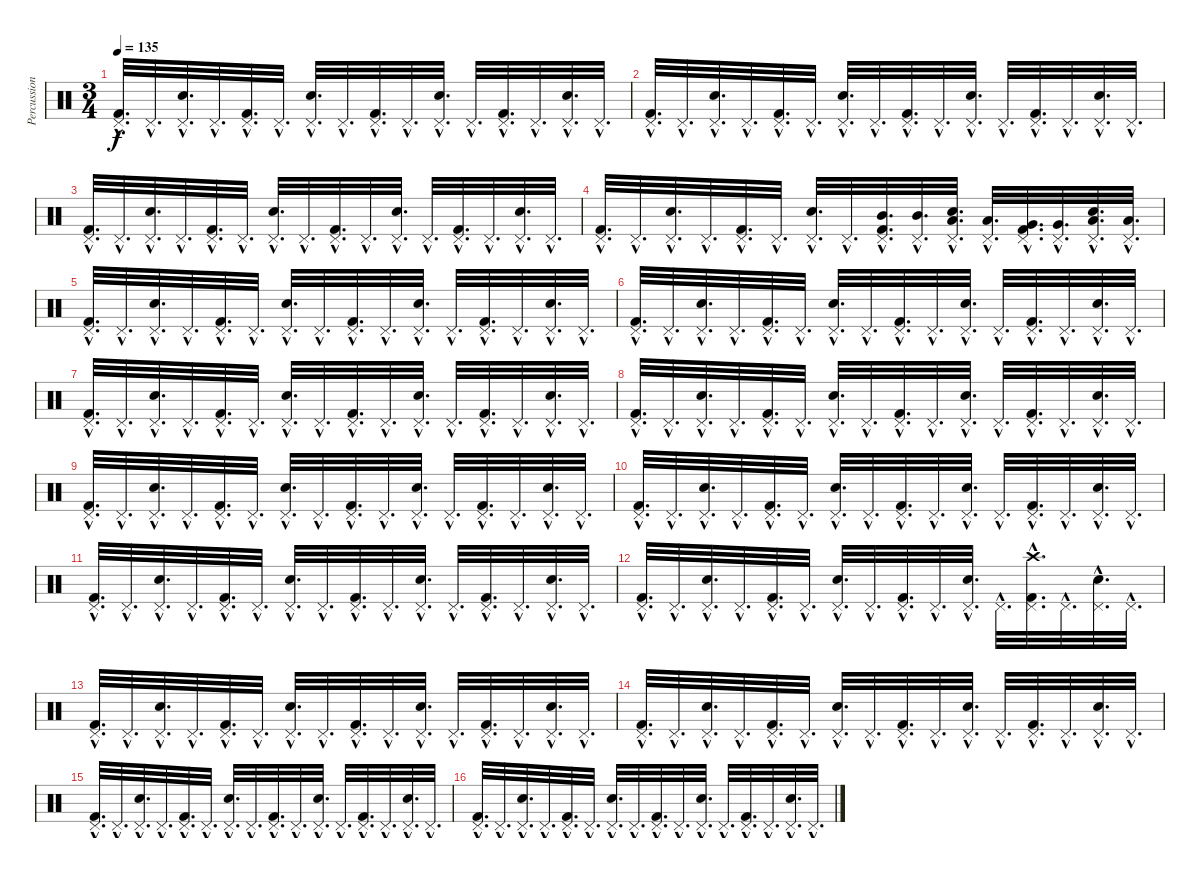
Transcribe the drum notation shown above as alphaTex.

\track ("Percussion" "Percussion") {instrument percussion}
\staff {score}
\articulation defaults
\ts (3 4)
\tempo 135
\clef neutral
\ks c
("Kick (hit) 2"{hac} "Pedal Hi-Hat (hit)"{hac}).32{d dy f} "Pedal Hi-Hat (hit)"{hac}.32{d} ("Pedal Hi-Hat (hit)"{hac} "Electric Snare (hit)"{hac}).32{d} "Pedal Hi-Hat (hit)"{hac}.32{d} ("Kick (hit) 2"{hac} "Pedal Hi-Hat (hit)"{hac}).32{d} "Pedal Hi-Hat (hit)"{hac}.32{d} ("Pedal Hi-Hat (hit)"{hac} "Electric Snare (hit)"{hac}).32{d} "Pedal Hi-Hat (hit)"{hac}.32{d} ("Kick (hit) 2"{hac} "Pedal Hi-Hat (hit)"{hac}).32{d} "Pedal Hi-Hat (hit)"{hac}.32{d} ("Pedal Hi-Hat (hit)"{hac} "Electric Snare (hit)"{hac}).32{d} "Pedal Hi-Hat (hit)"{hac}.32{d} ("Kick (hit) 2"{hac} "Pedal Hi-Hat (hit)"{hac}).32{d} "Pedal Hi-Hat (hit)"{hac}.32{d} ("Pedal Hi-Hat (hit)"{hac} "Electric Snare (hit)"{hac}).32{d} "Pedal Hi-Hat (hit)"{hac}.32{d} |
("Kick (hit) 2"{hac} "Pedal Hi-Hat (hit)"{hac}).32{d} "Pedal Hi-Hat (hit)"{hac}.32{d} ("Pedal Hi-Hat (hit)"{hac} "Electric Snare (hit)"{hac}).32{d} "Pedal Hi-Hat (hit)"{hac}.32{d} ("Kick (hit) 2"{hac} "Pedal Hi-Hat (hit)"{hac}).32{d} "Pedal Hi-Hat (hit)"{hac}.32{d} ("Pedal Hi-Hat (hit)"{hac} "Electric Snare (hit)"{hac}).32{d} "Pedal Hi-Hat (hit)"{hac}.32{d} ("Kick (hit) 2"{hac} "Pedal Hi-Hat (hit)"{hac}).32{d} "Pedal Hi-Hat (hit)"{hac}.32{d} ("Pedal Hi-Hat (hit)"{hac} "Electric Snare (hit)"{hac}).32{d} "Pedal Hi-Hat (hit)"{hac}.32{d} ("Kick (hit) 2"{hac} "Pedal Hi-Hat (hit)"{hac}).32{d} "Pedal Hi-Hat (hit)"{hac}.32{d} ("Pedal Hi-Hat (hit)"{hac} "Electric Snare (hit)"{hac}).32{d} "Pedal Hi-Hat (hit)"{hac}.32{d} |
("Kick (hit) 2"{hac} "Pedal Hi-Hat (hit)"{hac}).32{d} "Pedal Hi-Hat (hit)"{hac}.32{d} ("Pedal Hi-Hat (hit)"{hac} "Electric Snare (hit)"{hac}).32{d} "Pedal Hi-Hat (hit)"{hac}.32{d} ("Kick (hit) 2"{hac} "Pedal Hi-Hat (hit)"{hac}).32{d} "Pedal Hi-Hat (hit)"{hac}.32{d} ("Pedal Hi-Hat (hit)"{hac} "Electric Snare (hit)"{hac}).32{d} "Pedal Hi-Hat (hit)"{hac}.32{d} ("Kick (hit) 2"{hac} "Pedal Hi-Hat (hit)"{hac}).32{d} "Pedal Hi-Hat (hit)"{hac}.32{d} ("Pedal Hi-Hat (hit)"{hac} "Electric Snare (hit)"{hac}).32{d} "Pedal Hi-Hat (hit)"{hac}.32{d} ("Kick (hit) 2"{hac} "Pedal Hi-Hat (hit)"{hac}).32{d} "Pedal Hi-Hat (hit)"{hac}.32{d} ("Pedal Hi-Hat (hit)"{hac} "Electric Snare (hit)"{hac}).32{d} "Pedal Hi-Hat (hit)"{hac}.32{d} |
("Kick (hit) 2"{hac} "Pedal Hi-Hat (hit)"{hac}).32{d} "Pedal Hi-Hat (hit)"{hac}.32{d} ("Pedal Hi-Hat (hit)"{hac} "Electric Snare (hit)"{hac}).32{d} "Pedal Hi-Hat (hit)"{hac}.32{d} ("Kick (hit) 2"{hac} "Pedal Hi-Hat (hit)"{hac}).32{d} "Pedal Hi-Hat (hit)"{hac}.32{d} ("Pedal Hi-Hat (hit)"{hac} "Electric Snare (hit)"{hac}).32{d} "Pedal Hi-Hat (hit)"{hac}.32{d} ("Kick (hit) 2"{hac} "Pedal Hi-Hat (hit)"{hac} "Mid Tom (hit)"{hac}).32{d} ("Pedal Hi-Hat (hit)"{hac} "Mid Tom (hit)"{hac}).32{d} ("Pedal Hi-Hat (hit)"{hac} "Electric Snare (hit)"{hac} "Low Tom (hit)"{hac}).32{d} ("Pedal Hi-Hat (hit)"{hac} "Low Tom (hit)"{hac}).32{d} ("Kick (hit) 2"{hac} "Pedal Hi-Hat (hit)"{hac} "Very Low Tom (hit)"{hac}).32{d} ("Pedal Hi-Hat (hit)"{hac} "Very Low Tom (hit)"{hac}).32{d} ("Pedal Hi-Hat (hit)"{hac} "Electric Snare (hit)"{hac} "Low Floor Tom (hit)"{hac}).32{d} ("Pedal Hi-Hat (hit)"{hac} "Low Floor Tom (hit)"{hac}).32{d} |
("Kick (hit) 2"{hac} "Pedal Hi-Hat (hit)"{hac}).32{d} "Pedal Hi-Hat (hit)"{hac}.32{d} ("Pedal Hi-Hat (hit)"{hac} "Electric Snare (hit)"{hac}).32{d} "Pedal Hi-Hat (hit)"{hac}.32{d} ("Kick (hit) 2"{hac} "Pedal Hi-Hat (hit)"{hac}).32{d} "Pedal Hi-Hat (hit)"{hac}.32{d} ("Pedal Hi-Hat (hit)"{hac} "Electric Snare (hit)"{hac}).32{d} "Pedal Hi-Hat (hit)"{hac}.32{d} ("Kick (hit) 2"{hac} "Pedal Hi-Hat (hit)"{hac}).32{d} "Pedal Hi-Hat (hit)"{hac}.32{d} ("Pedal Hi-Hat (hit)"{hac} "Electric Snare (hit)"{hac}).32{d} "Pedal Hi-Hat (hit)"{hac}.32{d} ("Kick (hit) 2"{hac} "Pedal Hi-Hat (hit)"{hac}).32{d} "Pedal Hi-Hat (hit)"{hac}.32{d} ("Pedal Hi-Hat (hit)"{hac} "Electric Snare (hit)"{hac}).32{d} "Pedal Hi-Hat (hit)"{hac}.32{d} |
("Kick (hit) 2"{hac} "Pedal Hi-Hat (hit)"{hac}).32{d} "Pedal Hi-Hat (hit)"{hac}.32{d} ("Pedal Hi-Hat (hit)"{hac} "Electric Snare (hit)"{hac}).32{d} "Pedal Hi-Hat (hit)"{hac}.32{d} ("Kick (hit) 2"{hac} "Pedal Hi-Hat (hit)"{hac}).32{d} "Pedal Hi-Hat (hit)"{hac}.32{d} ("Pedal Hi-Hat (hit)"{hac} "Electric Snare (hit)"{hac}).32{d} "Pedal Hi-Hat (hit)"{hac}.32{d} ("Kick (hit) 2"{hac} "Pedal Hi-Hat (hit)"{hac}).32{d} "Pedal Hi-Hat (hit)"{hac}.32{d} ("Pedal Hi-Hat (hit)"{hac} "Electric Snare (hit)"{hac}).32{d} "Pedal Hi-Hat (hit)"{hac}.32{d} ("Kick (hit) 2"{hac} "Pedal Hi-Hat (hit)"{hac}).32{d} "Pedal Hi-Hat (hit)"{hac}.32{d} ("Pedal Hi-Hat (hit)"{hac} "Electric Snare (hit)"{hac}).32{d} "Pedal Hi-Hat (hit)"{hac}.32{d} |
("Kick (hit) 2"{hac} "Pedal Hi-Hat (hit)"{hac}).32{d} "Pedal Hi-Hat (hit)"{hac}.32{d} ("Pedal Hi-Hat (hit)"{hac} "Electric Snare (hit)"{hac}).32{d} "Pedal Hi-Hat (hit)"{hac}.32{d} ("Kick (hit) 2"{hac} "Pedal Hi-Hat (hit)"{hac}).32{d} "Pedal Hi-Hat (hit)"{hac}.32{d} ("Pedal Hi-Hat (hit)"{hac} "Electric Snare (hit)"{hac}).32{d} "Pedal Hi-Hat (hit)"{hac}.32{d} ("Kick (hit) 2"{hac} "Pedal Hi-Hat (hit)"{hac}).32{d} "Pedal Hi-Hat (hit)"{hac}.32{d} ("Pedal Hi-Hat (hit)"{hac} "Electric Snare (hit)"{hac}).32{d} "Pedal Hi-Hat (hit)"{hac}.32{d} ("Kick (hit) 2"{hac} "Pedal Hi-Hat (hit)"{hac}).32{d} "Pedal Hi-Hat (hit)"{hac}.32{d} ("Pedal Hi-Hat (hit)"{hac} "Electric Snare (hit)"{hac}).32{d} "Pedal Hi-Hat (hit)"{hac}.32{d} |
("Kick (hit) 2"{hac} "Pedal Hi-Hat (hit)"{hac}).32{d} "Pedal Hi-Hat (hit)"{hac}.32{d} ("Pedal Hi-Hat (hit)"{hac} "Electric Snare (hit)"{hac}).32{d} "Pedal Hi-Hat (hit)"{hac}.32{d} ("Kick (hit) 2"{hac} "Pedal Hi-Hat (hit)"{hac}).32{d} "Pedal Hi-Hat (hit)"{hac}.32{d} ("Pedal Hi-Hat (hit)"{hac} "Electric Snare (hit)"{hac}).32{d} "Pedal Hi-Hat (hit)"{hac}.32{d} ("Kick (hit) 2"{hac} "Pedal Hi-Hat (hit)"{hac}).32{d} "Pedal Hi-Hat (hit)"{hac}.32{d} ("Pedal Hi-Hat (hit)"{hac} "Electric Snare (hit)"{hac}).32{d} "Pedal Hi-Hat (hit)"{hac}.32{d} ("Kick (hit) 2"{hac} "Pedal Hi-Hat (hit)"{hac}).32{d} "Pedal Hi-Hat (hit)"{hac}.32{d} ("Pedal Hi-Hat (hit)"{hac} "Electric Snare (hit)"{hac}).32{d} "Pedal Hi-Hat (hit)"{hac}.32{d} |
("Kick (hit) 2"{hac} "Pedal Hi-Hat (hit)"{hac}).32{d} "Pedal Hi-Hat (hit)"{hac}.32{d} ("Pedal Hi-Hat (hit)"{hac} "Electric Snare (hit)"{hac}).32{d} "Pedal Hi-Hat (hit)"{hac}.32{d} ("Kick (hit) 2"{hac} "Pedal Hi-Hat (hit)"{hac}).32{d} "Pedal Hi-Hat (hit)"{hac}.32{d} ("Pedal Hi-Hat (hit)"{hac} "Electric Snare (hit)"{hac}).32{d} "Pedal Hi-Hat (hit)"{hac}.32{d} ("Kick (hit) 2"{hac} "Pedal Hi-Hat (hit)"{hac}).32{d} "Pedal Hi-Hat (hit)"{hac}.32{d} ("Pedal Hi-Hat (hit)"{hac} "Electric Snare (hit)"{hac}).32{d} "Pedal Hi-Hat (hit)"{hac}.32{d} ("Kick (hit) 2"{hac} "Pedal Hi-Hat (hit)"{hac}).32{d} "Pedal Hi-Hat (hit)"{hac}.32{d} ("Pedal Hi-Hat (hit)"{hac} "Electric Snare (hit)"{hac}).32{d} "Pedal Hi-Hat (hit)"{hac}.32{d} |
("Kick (hit) 2"{hac} "Pedal Hi-Hat (hit)"{hac}).32{d} "Pedal Hi-Hat (hit)"{hac}.32{d} ("Pedal Hi-Hat (hit)"{hac} "Electric Snare (hit)"{hac}).32{d} "Pedal Hi-Hat (hit)"{hac}.32{d} ("Kick (hit) 2"{hac} "Pedal Hi-Hat (hit)"{hac}).32{d} "Pedal Hi-Hat (hit)"{hac}.32{d} ("Pedal Hi-Hat (hit)"{hac} "Electric Snare (hit)"{hac}).32{d} "Pedal Hi-Hat (hit)"{hac}.32{d} ("Kick (hit) 2"{hac} "Pedal Hi-Hat (hit)"{hac}).32{d} "Pedal Hi-Hat (hit)"{hac}.32{d} ("Pedal Hi-Hat (hit)"{hac} "Electric Snare (hit)"{hac}).32{d} "Pedal Hi-Hat (hit)"{hac}.32{d} ("Kick (hit) 2"{hac} "Pedal Hi-Hat (hit)"{hac}).32{d} "Pedal Hi-Hat (hit)"{hac}.32{d} ("Pedal Hi-Hat (hit)"{hac} "Electric Snare (hit)"{hac}).32{d} "Pedal Hi-Hat (hit)"{hac}.32{d} |
("Kick (hit) 2"{hac} "Pedal Hi-Hat (hit)"{hac}).32{d} "Pedal Hi-Hat (hit)"{hac}.32{d} ("Pedal Hi-Hat (hit)"{hac} "Electric Snare (hit)"{hac}).32{d} "Pedal Hi-Hat (hit)"{hac}.32{d} ("Kick (hit) 2"{hac} "Pedal Hi-Hat (hit)"{hac}).32{d} "Pedal Hi-Hat (hit)"{hac}.32{d} ("Pedal Hi-Hat (hit)"{hac} "Electric Snare (hit)"{hac}).32{d} "Pedal Hi-Hat (hit)"{hac}.32{d} ("Kick (hit) 2"{hac} "Pedal Hi-Hat (hit)"{hac}).32{d} "Pedal Hi-Hat (hit)"{hac}.32{d} ("Pedal Hi-Hat (hit)"{hac} "Electric Snare (hit)"{hac}).32{d} "Pedal Hi-Hat (hit)"{hac}.32{d} ("Kick (hit) 2"{hac} "Pedal Hi-Hat (hit)"{hac}).32{d} "Pedal Hi-Hat (hit)"{hac}.32{d} ("Pedal Hi-Hat (hit)"{hac} "Electric Snare (hit)"{hac}).32{d} "Pedal Hi-Hat (hit)"{hac}.32{d} |
("Kick (hit) 2"{hac} "Pedal Hi-Hat (hit)"{hac}).32{d} "Pedal Hi-Hat (hit)"{hac}.32{d} ("Pedal Hi-Hat (hit)"{hac} "Electric Snare (hit)"{hac}).32{d} "Pedal Hi-Hat (hit)"{hac}.32{d} ("Kick (hit) 2"{hac} "Pedal Hi-Hat (hit)"{hac}).32{d} "Pedal Hi-Hat (hit)"{hac}.32{d} ("Pedal Hi-Hat (hit)"{hac} "Electric Snare (hit)"{hac}).32{d} "Pedal Hi-Hat (hit)"{hac}.32{d} ("Kick (hit) 2"{hac} "Pedal Hi-Hat (hit)"{hac}).32{d} "Pedal Hi-Hat (hit)"{hac}.32{d} ("Pedal Hi-Hat (hit)"{hac} "Electric Snare (hit)"{hac}).32{d} "Pedal Hi-Hat (hit)"{hac}.32{d} ("Kick (hit) 2"{hac} "Pedal Hi-Hat (hit)"{hac} "Crash high (hit)"{hac}).32{d} "Pedal Hi-Hat (hit)"{hac}.32{d} ("Pedal Hi-Hat (hit)"{hac} "Electric Snare (hit)"{hac}).32{d} "Pedal Hi-Hat (hit)"{hac}.32{d} |
("Kick (hit) 2"{hac} "Pedal Hi-Hat (hit)"{hac}).32{d} "Pedal Hi-Hat (hit)"{hac}.32{d} ("Pedal Hi-Hat (hit)"{hac} "Electric Snare (hit)"{hac}).32{d} "Pedal Hi-Hat (hit)"{hac}.32{d} ("Kick (hit) 2"{hac} "Pedal Hi-Hat (hit)"{hac}).32{d} "Pedal Hi-Hat (hit)"{hac}.32{d} ("Pedal Hi-Hat (hit)"{hac} "Electric Snare (hit)"{hac}).32{d} "Pedal Hi-Hat (hit)"{hac}.32{d} ("Kick (hit) 2"{hac} "Pedal Hi-Hat (hit)"{hac}).32{d} "Pedal Hi-Hat (hit)"{hac}.32{d} ("Pedal Hi-Hat (hit)"{hac} "Electric Snare (hit)"{hac}).32{d} "Pedal Hi-Hat (hit)"{hac}.32{d} ("Kick (hit) 2"{hac} "Pedal Hi-Hat (hit)"{hac}).32{d} "Pedal Hi-Hat (hit)"{hac}.32{d} ("Pedal Hi-Hat (hit)"{hac} "Electric Snare (hit)"{hac}).32{d} "Pedal Hi-Hat (hit)"{hac}.32{d} |
("Kick (hit) 2"{hac} "Pedal Hi-Hat (hit)"{hac}).32{d} "Pedal Hi-Hat (hit)"{hac}.32{d} ("Pedal Hi-Hat (hit)"{hac} "Electric Snare (hit)"{hac}).32{d} "Pedal Hi-Hat (hit)"{hac}.32{d} ("Kick (hit) 2"{hac} "Pedal Hi-Hat (hit)"{hac}).32{d} "Pedal Hi-Hat (hit)"{hac}.32{d} ("Pedal Hi-Hat (hit)"{hac} "Electric Snare (hit)"{hac}).32{d} "Pedal Hi-Hat (hit)"{hac}.32{d} ("Kick (hit) 2"{hac} "Pedal Hi-Hat (hit)"{hac}).32{d} "Pedal Hi-Hat (hit)"{hac}.32{d} ("Pedal Hi-Hat (hit)"{hac} "Electric Snare (hit)"{hac}).32{d} "Pedal Hi-Hat (hit)"{hac}.32{d} ("Kick (hit) 2"{hac} "Pedal Hi-Hat (hit)"{hac}).32{d} "Pedal Hi-Hat (hit)"{hac}.32{d} ("Pedal Hi-Hat (hit)"{hac} "Electric Snare (hit)"{hac}).32{d} "Pedal Hi-Hat (hit)"{hac}.32{d} |
("Kick (hit) 2"{hac} "Pedal Hi-Hat (hit)"{hac}).32{d} "Pedal Hi-Hat (hit)"{hac}.32{d} ("Pedal Hi-Hat (hit)"{hac} "Electric Snare (hit)"{hac}).32{d} "Pedal Hi-Hat (hit)"{hac}.32{d} ("Kick (hit) 2"{hac} "Pedal Hi-Hat (hit)"{hac}).32{d} "Pedal Hi-Hat (hit)"{hac}.32{d} ("Pedal Hi-Hat (hit)"{hac} "Electric Snare (hit)"{hac}).32{d} "Pedal Hi-Hat (hit)"{hac}.32{d} ("Kick (hit) 2"{hac} "Pedal Hi-Hat (hit)"{hac}).32{d} "Pedal Hi-Hat (hit)"{hac}.32{d} ("Pedal Hi-Hat (hit)"{hac} "Electric Snare (hit)"{hac}).32{d} "Pedal Hi-Hat (hit)"{hac}.32{d} ("Kick (hit) 2"{hac} "Pedal Hi-Hat (hit)"{hac}).32{d} "Pedal Hi-Hat (hit)"{hac}.32{d} ("Pedal Hi-Hat (hit)"{hac} "Electric Snare (hit)"{hac}).32{d} "Pedal Hi-Hat (hit)"{hac}.32{d} |
("Kick (hit) 2"{hac} "Pedal Hi-Hat (hit)"{hac}).32{d} "Pedal Hi-Hat (hit)"{hac}.32{d} ("Pedal Hi-Hat (hit)"{hac} "Electric Snare (hit)"{hac}).32{d} "Pedal Hi-Hat (hit)"{hac}.32{d} ("Kick (hit) 2"{hac} "Pedal Hi-Hat (hit)"{hac}).32{d} "Pedal Hi-Hat (hit)"{hac}.32{d} ("Pedal Hi-Hat (hit)"{hac} "Electric Snare (hit)"{hac}).32{d} "Pedal Hi-Hat (hit)"{hac}.32{d} ("Kick (hit) 2"{hac} "Pedal Hi-Hat (hit)"{hac}).32{d} "Pedal Hi-Hat (hit)"{hac}.32{d} ("Pedal Hi-Hat (hit)"{hac} "Electric Snare (hit)"{hac}).32{d} "Pedal Hi-Hat (hit)"{hac}.32{d} ("Kick (hit) 2"{hac} "Pedal Hi-Hat (hit)"{hac}).32{d} "Pedal Hi-Hat (hit)"{hac}.32{d} ("Pedal Hi-Hat (hit)"{hac} "Electric Snare (hit)"{hac}).32{d} "Pedal Hi-Hat (hit)"{hac}.32{d}
